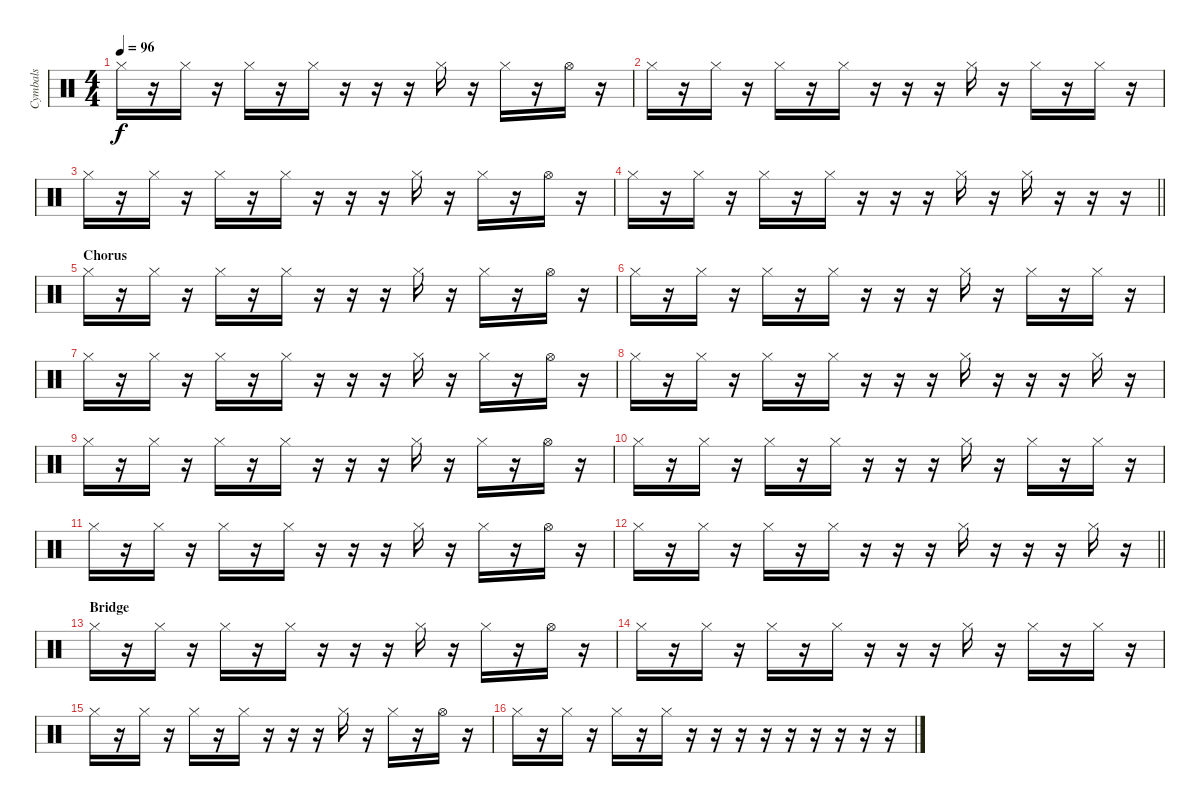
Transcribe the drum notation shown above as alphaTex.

\track ("Cymbals" "Cymbals") {instrument percussion}
\staff {score}
\articulation defaults
\ts (4 4)
\tempo 96
\clef neutral
\ks c "Hi-Hat (closed)".16{dy f}
r.16 "Hi-Hat (closed)".16 r.16 "Hi-Hat (closed)".16 r.16 "Hi-Hat (closed)".16 r.16 r.16 r.16 "Hi-Hat (closed)".16 r.16 "Hi-Hat (closed)".16 r.16 "Hi-Hat (open)".16 r.16 |
"Hi-Hat (closed)".16 r.16 "Hi-Hat (closed)".16 r.16 "Hi-Hat (closed)".16 r.16 "Hi-Hat (closed)".16 r.16 r.16 r.16 "Hi-Hat (closed)".16 r.16 "Hi-Hat (closed)".16 r.16 "Hi-Hat (closed)".16 r.16 |
"Hi-Hat (closed)".16 r.16 "Hi-Hat (closed)".16 r.16 "Hi-Hat (closed)".16 r.16 "Hi-Hat (closed)".16 r.16 r.16 r.16 "Hi-Hat (closed)".16 r.16 "Hi-Hat (closed)".16 r.16 "Hi-Hat (open)".16 r.16 |
\barLineRight lightlight "Hi-Hat (closed)".16
r.16 "Hi-Hat (closed)".16 r.16 "Hi-Hat (closed)".16 r.16 "Hi-Hat (closed)".16 r.16 r.16 r.16 "Hi-Hat (closed)".16 r.16 "Hi-Hat (closed)".16 r.16 r.16 r.16 |
\section ("" "Chorus")
"Hi-Hat (closed)".16 r.16 "Hi-Hat (closed)".16 r.16 "Hi-Hat (closed)".16 r.16 "Hi-Hat (closed)".16 r.16 r.16 r.16 "Hi-Hat (closed)".16 r.16 "Hi-Hat (closed)".16 r.16 "Hi-Hat (open)".16 r.16 |
"Hi-Hat (closed)".16 r.16 "Hi-Hat (closed)".16 r.16 "Hi-Hat (closed)".16 r.16 "Hi-Hat (closed)".16 r.16 r.16 r.16 "Hi-Hat (closed)".16 r.16 "Hi-Hat (closed)".16 r.16 "Hi-Hat (closed)".16 r.16 |
"Hi-Hat (closed)".16 r.16 "Hi-Hat (closed)".16 r.16 "Hi-Hat (closed)".16 r.16 "Hi-Hat (closed)".16 r.16 r.16 r.16 "Hi-Hat (closed)".16 r.16 "Hi-Hat (closed)".16 r.16 "Hi-Hat (open)".16 r.16 |
"Hi-Hat (closed)".16 r.16 "Hi-Hat (closed)".16 r.16 "Hi-Hat (closed)".16 r.16 "Hi-Hat (closed)".16 r.16 r.16 r.16 "Hi-Hat (closed)".16 r.16 r.16 r.16 "Hi-Hat (closed)".16 r.16 |
"Hi-Hat (closed)".16 r.16 "Hi-Hat (closed)".16 r.16 "Hi-Hat (closed)".16 r.16 "Hi-Hat (closed)".16 r.16 r.16 r.16 "Hi-Hat (closed)".16 r.16 "Hi-Hat (closed)".16 r.16 "Hi-Hat (open)".16 r.16 |
"Hi-Hat (closed)".16 r.16 "Hi-Hat (closed)".16 r.16 "Hi-Hat (closed)".16 r.16 "Hi-Hat (closed)".16 r.16 r.16 r.16 "Hi-Hat (closed)".16 r.16 "Hi-Hat (closed)".16 r.16 "Hi-Hat (closed)".16 r.16 |
"Hi-Hat (closed)".16 r.16 "Hi-Hat (closed)".16 r.16 "Hi-Hat (closed)".16 r.16 "Hi-Hat (closed)".16 r.16 r.16 r.16 "Hi-Hat (closed)".16 r.16 "Hi-Hat (closed)".16 r.16 "Hi-Hat (open)".16 r.16 |
\barLineRight lightlight "Hi-Hat (closed)".16
r.16 "Hi-Hat (closed)".16 r.16 "Hi-Hat (closed)".16 r.16 "Hi-Hat (closed)".16 r.16 r.16 r.16 "Hi-Hat (closed)".16 r.16 r.16 r.16 "Hi-Hat (closed)".16 r.16 |
\section ("" "Bridge")
"Hi-Hat (closed)".16 r.16 "Hi-Hat (closed)".16 r.16 "Hi-Hat (closed)".16 r.16 "Hi-Hat (closed)".16 r.16 r.16 r.16 "Hi-Hat (closed)".16 r.16 "Hi-Hat (closed)".16 r.16 "Hi-Hat (open)".16 r.16 |
"Hi-Hat (closed)".16 r.16 "Hi-Hat (closed)".16 r.16 "Hi-Hat (closed)".16 r.16 "Hi-Hat (closed)".16 r.16 r.16 r.16 "Hi-Hat (closed)".16 r.16 "Hi-Hat (closed)".16 r.16 "Hi-Hat (closed)".16 r.16 |
"Hi-Hat (closed)".16 r.16 "Hi-Hat (closed)".16 r.16 "Hi-Hat (closed)".16 r.16 "Hi-Hat (closed)".16 r.16 r.16 r.16 "Hi-Hat (closed)".16 r.16 "Hi-Hat (closed)".16 r.16 "Hi-Hat (open)".16 r.16 |
"Hi-Hat (closed)".16 r.16 "Hi-Hat (closed)".16 r.16 "Hi-Hat (closed)".16 r.16 "Hi-Hat (closed)".16 r.16 r.16 r.16 r.16 r.16 r.16 r.16 r.16 r.16
